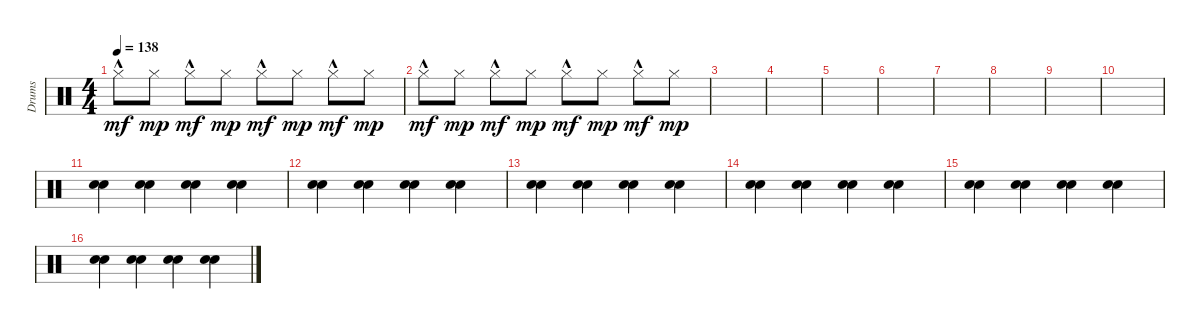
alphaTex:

\track ("Drums" "Drums") {instrument percussion}
\staff {score}
\articulation defaults
\ts (4 4)
\tempo 138
\clef neutral
\ks c "Hi-Hat (closed)"{hac}.8{dy mf} "Hi-Hat (closed)".8{dy mp} "Hi-Hat (closed)"{hac}.8{dy mf} "Hi-Hat (closed)".8{dy mp} "Hi-Hat (closed)"{hac}.8{dy mf} "Hi-Hat (closed)".8{dy mp} "Hi-Hat (closed)"{hac}.8{dy mf} "Hi-Hat (closed)".8{dy mp}
|
"Hi-Hat (closed)"{hac}.8{dy mf} "Hi-Hat (closed)".8{dy mp} "Hi-Hat (closed)"{hac}.8{dy mf} "Hi-Hat (closed)".8{dy mp} "Hi-Hat (closed)"{hac}.8{dy mf} "Hi-Hat (closed)".8{dy mp} "Hi-Hat (closed)"{hac}.8{dy mf} "Hi-Hat (closed)".8{dy mp} |
|
|
|
|
|
|
|
|
("Snare (hit) 2" "Hand Clap (hit)").4 ("Snare (hit) 2" "Hand Clap (hit)").4 ("Snare (hit) 2" "Hand Clap (hit)").4 ("Snare (hit) 2" "Hand Clap (hit)").4 |
("Snare (hit) 2" "Hand Clap (hit)").4 ("Snare (hit) 2" "Hand Clap (hit)").4 ("Snare (hit) 2" "Hand Clap (hit)").4 ("Snare (hit) 2" "Hand Clap (hit)").4 |
("Snare (hit) 2" "Hand Clap (hit)").4 ("Snare (hit) 2" "Hand Clap (hit)").4 ("Snare (hit) 2" "Hand Clap (hit)").4 ("Snare (hit) 2" "Hand Clap (hit)").4 |
("Snare (hit) 2" "Hand Clap (hit)").4 ("Snare (hit) 2" "Hand Clap (hit)").4 ("Snare (hit) 2" "Hand Clap (hit)").4 ("Snare (hit) 2" "Hand Clap (hit)").4 |
("Snare (hit) 2" "Hand Clap (hit)").4 ("Snare (hit) 2" "Hand Clap (hit)").4 ("Snare (hit) 2" "Hand Clap (hit)").4 ("Snare (hit) 2" "Hand Clap (hit)").4 |
("Snare (hit) 2" "Hand Clap (hit)").4 ("Snare (hit) 2" "Hand Clap (hit)").4 ("Snare (hit) 2" "Hand Clap (hit)").4 ("Snare (hit) 2" "Hand Clap (hit)").4
